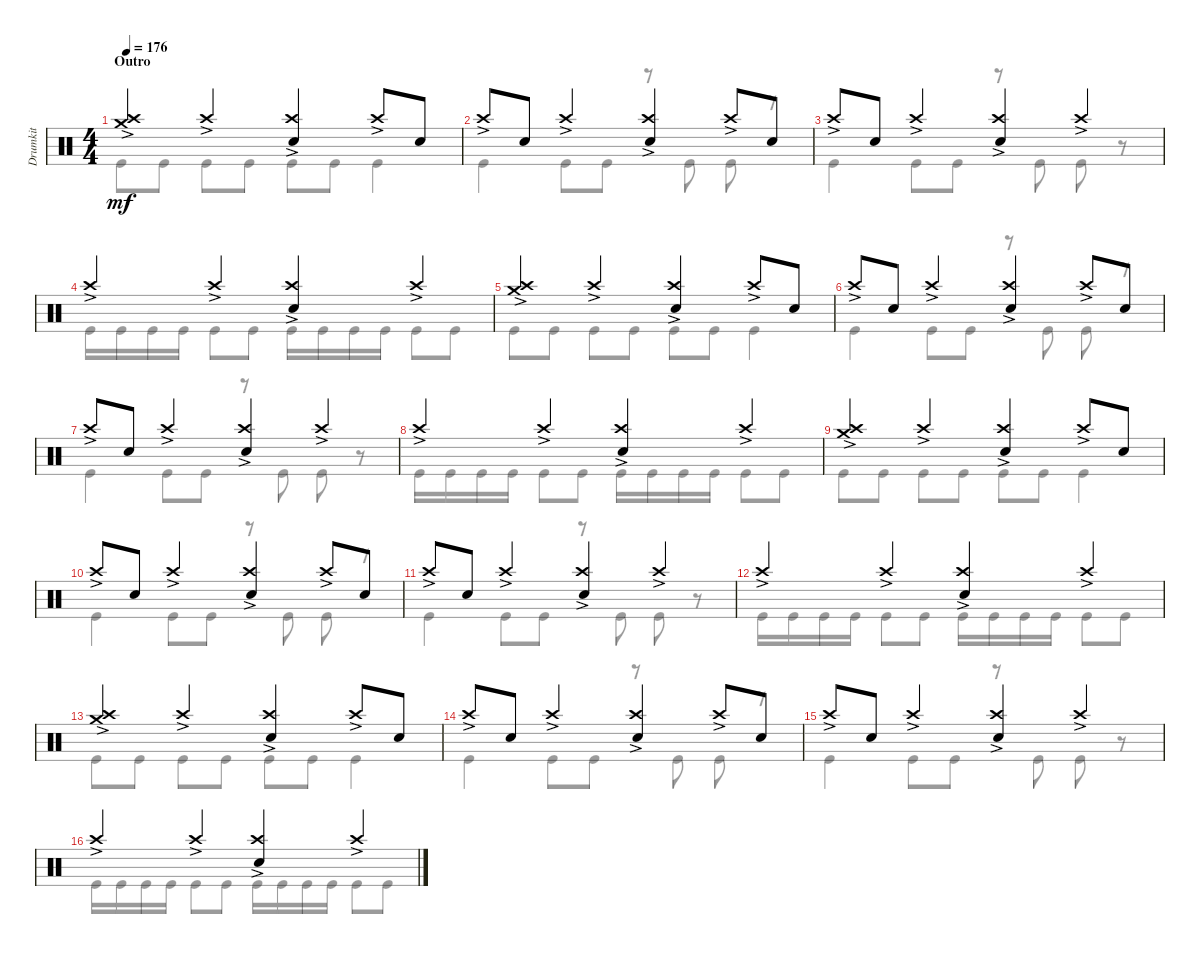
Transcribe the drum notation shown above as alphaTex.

\track ("Drumkit" "Drumkit") {instrument percussion}
\staff {score}
\articulation defaults
\voice
\ts (4 4)
\section ("" "Outro")
\tempo 176
\clef neutral
\ks c
("Crash medium (hit)"{ac} "Crash high (hit)"{ac}).4{dy mf} "Crash high (hit)"{ac}.4 ("Crash high (hit)"{ac} "Snare (hit) 2").4 "Crash high (hit)"{ac}.8 "Snare (hit) 2".8 |
"Crash high (hit)"{ac}.8 "Snare (hit) 2".8 "Crash high (hit)"{ac}.4 ("Crash high (hit)"{ac} "Snare (hit) 2").4 "Crash high (hit)"{ac}.8 "Snare (hit) 2".8 |
"Crash high (hit)"{ac}.8 "Snare (hit) 2".8 "Crash high (hit)"{ac}.4 ("Crash high (hit)"{ac} "Snare (hit) 2").4 "Crash high (hit)"{ac}.4 |
"Crash high (hit)"{ac}.4 "Crash high (hit)"{ac}.4 ("Crash high (hit)"{ac} "Snare (hit) 2").4 "Crash high (hit)"{ac}.4 |
("Crash medium (hit)"{ac} "Crash high (hit)"{ac}).4 "Crash high (hit)"{ac}.4 ("Crash high (hit)"{ac} "Snare (hit) 2").4 "Crash high (hit)"{ac}.8 "Snare (hit) 2".8 |
"Crash high (hit)"{ac}.8 "Snare (hit) 2".8 "Crash high (hit)"{ac}.4 ("Crash high (hit)"{ac} "Snare (hit) 2").4 "Crash high (hit)"{ac}.8 "Snare (hit) 2".8 |
"Crash high (hit)"{ac}.8 "Snare (hit) 2".8 "Crash high (hit)"{ac}.4 ("Crash high (hit)"{ac} "Snare (hit) 2").4 "Crash high (hit)"{ac}.4 |
"Crash high (hit)"{ac}.4 "Crash high (hit)"{ac}.4 ("Crash high (hit)"{ac} "Snare (hit) 2").4 "Crash high (hit)"{ac}.4 |
("Crash medium (hit)"{ac} "Crash high (hit)"{ac}).4 "Crash high (hit)"{ac}.4 ("Crash high (hit)"{ac} "Snare (hit) 2").4 "Crash high (hit)"{ac}.8 "Snare (hit) 2".8 |
"Crash high (hit)"{ac}.8 "Snare (hit) 2".8 "Crash high (hit)"{ac}.4 ("Crash high (hit)"{ac} "Snare (hit) 2").4 "Crash high (hit)"{ac}.8 "Snare (hit) 2".8 |
"Crash high (hit)"{ac}.8 "Snare (hit) 2".8 "Crash high (hit)"{ac}.4 ("Crash high (hit)"{ac} "Snare (hit) 2").4 "Crash high (hit)"{ac}.4 |
"Crash high (hit)"{ac}.4 "Crash high (hit)"{ac}.4 ("Crash high (hit)"{ac} "Snare (hit) 2").4 "Crash high (hit)"{ac}.4 |
("Crash medium (hit)"{ac} "Crash high (hit)"{ac}).4 "Crash high (hit)"{ac}.4 ("Crash high (hit)"{ac} "Snare (hit) 2").4 "Crash high (hit)"{ac}.8 "Snare (hit) 2".8 |
"Crash high (hit)"{ac}.8 "Snare (hit) 2".8 "Crash high (hit)"{ac}.4 ("Crash high (hit)"{ac} "Snare (hit) 2").4 "Crash high (hit)"{ac}.8 "Snare (hit) 2".8 |
"Crash high (hit)"{ac}.8 "Snare (hit) 2".8 "Crash high (hit)"{ac}.4 ("Crash high (hit)"{ac} "Snare (hit) 2").4 "Crash high (hit)"{ac}.4 |
"Crash high (hit)"{ac}.4 "Crash high (hit)"{ac}.4 ("Crash high (hit)"{ac} "Snare (hit) 2").4 "Crash high (hit)"{ac}.4
\voice
\clef neutral
\ottava regular
\simile none
\ks c "Kick (hit)".8{dy mf} "Kick (hit)".8 "Kick (hit)".8 "Kick (hit)".8 "Kick (hit)".8 "Kick (hit)".8 "Kick (hit)".4
|
"Kick (hit)".4 "Kick (hit)".8 "Kick (hit)".8 r.8 "Kick (hit)".8 "Kick (hit)".8 r.8 |
"Kick (hit)".4 "Kick (hit)".8 "Kick (hit)".8 r.8 "Kick (hit)".8 "Kick (hit)".8 r.8 |
"Kick (hit)".16 "Kick (hit)".16 "Kick (hit)".16 "Kick (hit)".16 "Kick (hit)".8 "Kick (hit)".8 "Kick (hit)".16 "Kick (hit)".16 "Kick (hit)".16 "Kick (hit)".16 "Kick (hit)".8 "Kick (hit)".8 |
"Kick (hit)".8 "Kick (hit)".8 "Kick (hit)".8 "Kick (hit)".8 "Kick (hit)".8 "Kick (hit)".8 "Kick (hit)".4 |
"Kick (hit)".4 "Kick (hit)".8 "Kick (hit)".8 r.8 "Kick (hit)".8 "Kick (hit)".8 r.8 |
"Kick (hit)".4 "Kick (hit)".8 "Kick (hit)".8 r.8 "Kick (hit)".8 "Kick (hit)".8 r.8 |
"Kick (hit)".16 "Kick (hit)".16 "Kick (hit)".16 "Kick (hit)".16 "Kick (hit)".8 "Kick (hit)".8 "Kick (hit)".16 "Kick (hit)".16 "Kick (hit)".16 "Kick (hit)".16 "Kick (hit)".8 "Kick (hit)".8 |
"Kick (hit)".8 "Kick (hit)".8 "Kick (hit)".8 "Kick (hit)".8 "Kick (hit)".8 "Kick (hit)".8 "Kick (hit)".4 |
"Kick (hit)".4 "Kick (hit)".8 "Kick (hit)".8 r.8 "Kick (hit)".8 "Kick (hit)".8 r.8 |
"Kick (hit)".4 "Kick (hit)".8 "Kick (hit)".8 r.8 "Kick (hit)".8 "Kick (hit)".8 r.8 |
"Kick (hit)".16 "Kick (hit)".16 "Kick (hit)".16 "Kick (hit)".16 "Kick (hit)".8 "Kick (hit)".8 "Kick (hit)".16 "Kick (hit)".16 "Kick (hit)".16 "Kick (hit)".16 "Kick (hit)".8 "Kick (hit)".8 |
"Kick (hit)".8 "Kick (hit)".8 "Kick (hit)".8 "Kick (hit)".8 "Kick (hit)".8 "Kick (hit)".8 "Kick (hit)".4 |
"Kick (hit)".4 "Kick (hit)".8 "Kick (hit)".8 r.8 "Kick (hit)".8 "Kick (hit)".8 r.8 |
"Kick (hit)".4 "Kick (hit)".8 "Kick (hit)".8 r.8 "Kick (hit)".8 "Kick (hit)".8 r.8 |
"Kick (hit)".16 "Kick (hit)".16 "Kick (hit)".16 "Kick (hit)".16 "Kick (hit)".8 "Kick (hit)".8 "Kick (hit)".16 "Kick (hit)".16 "Kick (hit)".16 "Kick (hit)".16 "Kick (hit)".8 "Kick (hit)".8
